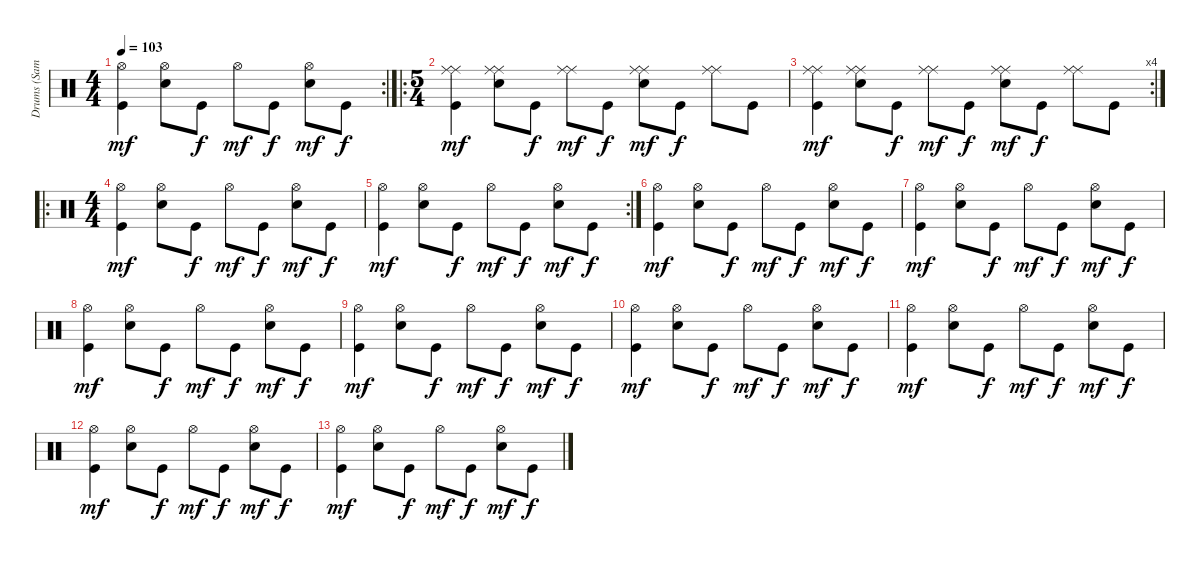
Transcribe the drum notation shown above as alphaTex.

\track ("Drums (Sami Karppinen)" "Drums (Sam") {instrument percussion}
\staff {score}
\articulation defaults
\rc 2
\ts (4 4)
\tempo 103
\clef neutral
\ks c
("Kick (hit)" "Hi-Hat (open)").4{dy mf} ("Electric Snare (hit)" "Hi-Hat (open)").8 "Kick (hit)".8{dy f} "Hi-Hat (open)".8{dy mf} "Kick (hit)".8{dy f} ("Electric Snare (hit)" "Hi-Hat (open)").8{dy mf} "Kick (hit)".8{dy f} |
\ro
\ts (5 4)
("Kick (hit)" "Ride (middle)" "Ride (middle)").4{dy mf} ("Electric Snare (hit)" "Ride (middle)" "Ride (middle)").8 "Kick (hit)".8{dy f} ("Ride (middle)" "Ride (middle)").8{dy mf} "Kick (hit)".8{dy f} ("Electric Snare (hit)" "Ride (middle)" "Ride (middle)").8{dy mf} "Kick (hit)".8{dy f} ("Ride (middle)" "Ride (middle)").8 "Kick (hit)".8 |
\rc 4
("Kick (hit)" "Ride (middle)" "Ride (middle)").4{dy mf} ("Electric Snare (hit)" "Ride (middle)" "Ride (middle)").8 "Kick (hit)".8{dy f} ("Ride (middle)" "Ride (middle)").8{dy mf} "Kick (hit)".8{dy f} ("Electric Snare (hit)" "Ride (middle)" "Ride (middle)").8{dy mf} "Kick (hit)".8{dy f} ("Ride (middle)" "Ride (middle)").8 "Kick (hit)".8 |
\ro
\ts (4 4)
("Kick (hit)" "Hi-Hat (open)").4{dy mf} ("Electric Snare (hit)" "Hi-Hat (open)").8 "Kick (hit)".8{dy f} "Hi-Hat (open)".8{dy mf} "Kick (hit)".8{dy f} ("Electric Snare (hit)" "Hi-Hat (open)").8{dy mf} "Kick (hit)".8{dy f} |
\rc 2
("Kick (hit)" "Hi-Hat (open)").4{dy mf} ("Electric Snare (hit)" "Hi-Hat (open)").8 "Kick (hit)".8{dy f} "Hi-Hat (open)".8{dy mf} "Kick (hit)".8{dy f} ("Electric Snare (hit)" "Hi-Hat (open)").8{dy mf} "Kick (hit)".8{dy f} |
("Kick (hit)" "Hi-Hat (open)").4{dy mf} ("Electric Snare (hit)" "Hi-Hat (open)").8 "Kick (hit)".8{dy f} "Hi-Hat (open)".8{dy mf} "Kick (hit)".8{dy f} ("Electric Snare (hit)" "Hi-Hat (open)").8{dy mf} "Kick (hit)".8{dy f} |
("Kick (hit)" "Hi-Hat (open)").4{dy mf} ("Electric Snare (hit)" "Hi-Hat (open)").8 "Kick (hit)".8{dy f} "Hi-Hat (open)".8{dy mf} "Kick (hit)".8{dy f} ("Electric Snare (hit)" "Hi-Hat (open)").8{dy mf} "Kick (hit)".8{dy f} |
("Kick (hit)" "Hi-Hat (open)").4{dy mf} ("Electric Snare (hit)" "Hi-Hat (open)").8 "Kick (hit)".8{dy f} "Hi-Hat (open)".8{dy mf} "Kick (hit)".8{dy f} ("Electric Snare (hit)" "Hi-Hat (open)").8{dy mf} "Kick (hit)".8{dy f} |
("Kick (hit)" "Hi-Hat (open)").4{dy mf} ("Electric Snare (hit)" "Hi-Hat (open)").8 "Kick (hit)".8{dy f} "Hi-Hat (open)".8{dy mf} "Kick (hit)".8{dy f} ("Electric Snare (hit)" "Hi-Hat (open)").8{dy mf} "Kick (hit)".8{dy f} |
("Kick (hit)" "Hi-Hat (open)").4{dy mf} ("Electric Snare (hit)" "Hi-Hat (open)").8 "Kick (hit)".8{dy f} "Hi-Hat (open)".8{dy mf} "Kick (hit)".8{dy f} ("Electric Snare (hit)" "Hi-Hat (open)").8{dy mf} "Kick (hit)".8{dy f} |
("Kick (hit)" "Hi-Hat (open)").4{dy mf} ("Electric Snare (hit)" "Hi-Hat (open)").8 "Kick (hit)".8{dy f} "Hi-Hat (open)".8{dy mf} "Kick (hit)".8{dy f} ("Electric Snare (hit)" "Hi-Hat (open)").8{dy mf} "Kick (hit)".8{dy f} |
("Kick (hit)" "Hi-Hat (open)").4{dy mf} ("Electric Snare (hit)" "Hi-Hat (open)").8 "Kick (hit)".8{dy f} "Hi-Hat (open)".8{dy mf} "Kick (hit)".8{dy f} ("Electric Snare (hit)" "Hi-Hat (open)").8{dy mf} "Kick (hit)".8{dy f} |
("Kick (hit)" "Hi-Hat (open)").4{dy mf} ("Electric Snare (hit)" "Hi-Hat (open)").8 "Kick (hit)".8{dy f} "Hi-Hat (open)".8{dy mf} "Kick (hit)".8{dy f} ("Electric Snare (hit)" "Hi-Hat (open)").8{dy mf} "Kick (hit)".8{dy f}
